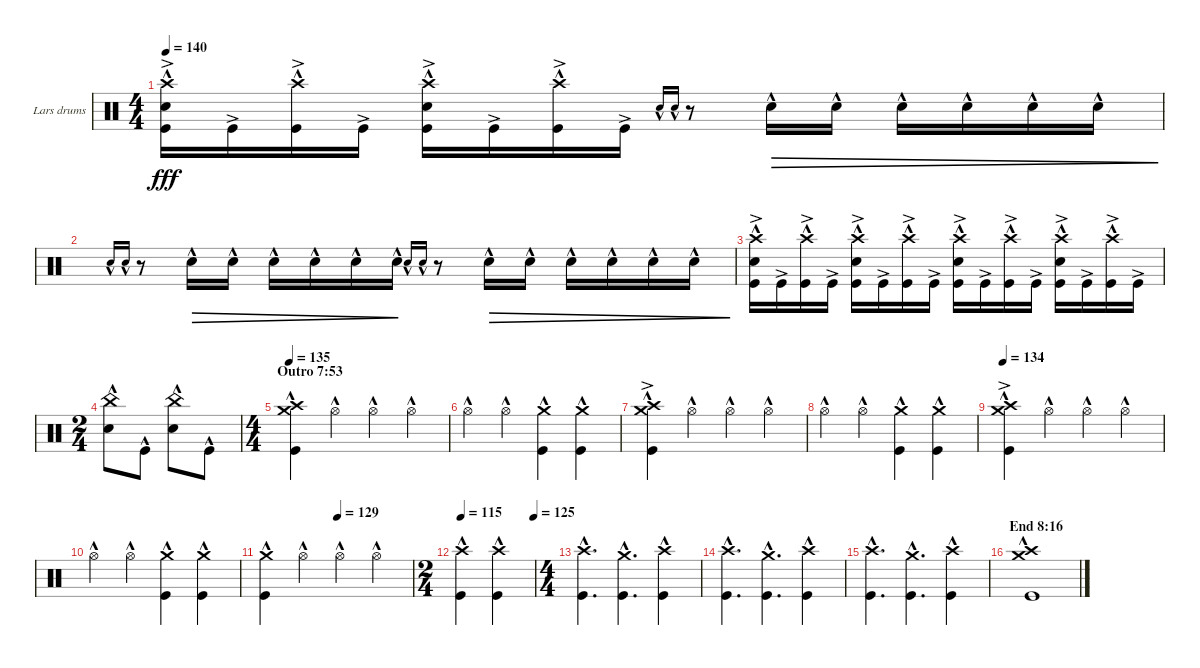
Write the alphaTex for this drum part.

\defaultSystemsLayout 4
\bracketExtendMode groupsimilarinstruments
\firstSystemTrackNameOrientation horizontal
\otherSystemsTrackNameOrientation horizontal
\track ("Lars drums" "Lars drums") {instrument percussion}
\staff {score}
\articulation defaults
\ts (4 4)
\tempo 140
\clef neutral
\ks c
("Crash high (hit)"{hac} "Snare (hit) 2"{hac} "Kick (hit)"{ac}).16{dy fff} "Kick (hit)"{ac}.16 ("Crash high (hit)"{hac} "Kick (hit)"{ac}).16 "Kick (hit)"{ac}.16 ("Crash high (hit)"{hac} "Snare (hit) 2"{hac} "Kick (hit)"{ac}).16 "Kick (hit)"{ac}.16 ("Crash high (hit)"{hac} "Kick (hit)"{ac}).16 "Kick (hit)"{ac}.16 "Snare (hit) 2"{hac}.16{gr onbeat} "Snare (hit) 2"{hac}.16{gr onbeat} r.8 "Snare (hit) 2"{hac}.16{dec} "Snare (hit) 2"{hac}.16{dec} "Snare (hit) 2"{hac}.16{dec} "Snare (hit) 2"{hac}.16{dec} "Snare (hit) 2"{hac}.16{dec} "Snare (hit) 2"{hac}.16{dec} |
"Snare (hit) 2"{hac}.16{gr onbeat} "Snare (hit) 2"{hac}.16{gr onbeat} r.8 "Snare (hit) 2"{hac}.16{dec} "Snare (hit) 2"{hac}.16{dec} "Snare (hit) 2"{hac}.16{dec} "Snare (hit) 2"{hac}.16{dec} "Snare (hit) 2"{hac}.16{dec} "Snare (hit) 2"{hac}.16{dec} "Snare (hit) 2"{hac}.16{gr onbeat} "Snare (hit) 2"{hac}.16{gr onbeat} r.8 "Snare (hit) 2"{hac}.16{dec} "Snare (hit) 2"{hac}.16{dec} "Snare (hit) 2"{hac}.16{dec} "Snare (hit) 2"{hac}.16{dec} "Snare (hit) 2"{hac}.16{dec} "Snare (hit) 2"{hac}.16{dec} |
("Crash high (hit)"{hac} "Snare (hit) 2"{hac} "Kick (hit)"{ac}).16 "Kick (hit)"{ac}.16 ("Crash high (hit)"{hac} "Kick (hit)"{ac}).16 "Kick (hit)"{ac}.16 ("Crash high (hit)"{hac} "Snare (hit) 2"{hac} "Kick (hit)"{ac}).16 "Kick (hit)"{ac}.16 ("Crash high (hit)"{hac} "Kick (hit)"{ac}).16 "Kick (hit)"{ac}.16 ("Crash high (hit)"{hac} "Snare (hit) 2"{hac} "Kick (hit)"{ac}).16 "Kick (hit)"{ac}.16 ("Crash high (hit)"{hac} "Kick (hit)"{ac}).16 "Kick (hit)"{ac}.16 ("Crash high (hit)"{hac} "Snare (hit) 2"{hac} "Kick (hit)"{ac}).16 "Kick (hit)"{ac}.16 ("Crash high (hit)"{hac} "Kick (hit)"{ac}).16 "Kick (hit)"{ac}.16 |
\ts (2 4)
("Snare (hit) 2"{hac} "China (hit)"{hac}).8 "Kick (hit)"{hac}.8 ("Snare (hit) 2"{hac} "China (hit)"{hac}).8 "Kick (hit)"{hac}.8 |
\ts (4 4)
\section ("" "Outro 7:53")
\tempo 135
("Crash high (hit)"{hac} "Crash medium (hit)"{hac} "Kick (hit)"{hac}).4 "Hi-Hat (open)"{hac}.4 "Hi-Hat (open)"{hac}.4 "Hi-Hat (open)"{hac}.4 |
"Hi-Hat (open)"{hac}.4 "Hi-Hat (open)"{hac}.4 ("Crash medium (hit)"{hac} "Kick (hit)"{hac}).4 ("Crash medium (hit)"{hac} "Kick (hit)"{hac}).4 |
("Crash high (hit)"{hac} "Crash medium (hit)"{ac} "Kick (hit)"{hac}).4 "Hi-Hat (open)"{hac}.4 "Hi-Hat (open)"{hac}.4 "Hi-Hat (open)"{hac}.4 |
"Hi-Hat (open)"{hac}.4 "Hi-Hat (open)"{hac}.4 ("Crash medium (hit)"{hac} "Kick (hit)"{hac}).4 ("Crash medium (hit)"{hac} "Kick (hit)"{hac}).4 |
\tempo 134
("Crash high (hit)"{hac} "Crash medium (hit)"{ac} "Kick (hit)"{hac}).4 "Hi-Hat (open)"{hac}.4 "Hi-Hat (open)"{hac}.4 "Hi-Hat (open)"{hac}.4 |
"Hi-Hat (open)"{hac}.4 "Hi-Hat (open)"{hac}.4 ("Crash medium (hit)"{hac} "Kick (hit)"{hac}).4 ("Crash medium (hit)"{hac} "Kick (hit)"{hac}).4 |
\tempo (129 0.49375)
("Crash medium (hit)"{hac} "Kick (hit)"{hac}).4 "Hi-Hat (open)"{hac}.4 "Hi-Hat (open)"{hac}.4 "Hi-Hat (open)"{hac}.4 |
\ts (2 4)
\tempo 115
\tempo (125 1)
("Crash high (hit)"{hac} "Kick (hit)"{hac}).4 ("Crash high (hit)"{hac} "Kick (hit)"{hac}).4 |
\ts (4 4)
("Crash high (hit)"{hac} "Kick (hit)"{hac}).4{d} ("Crash medium (hit)"{hac} "Kick (hit)"{hac}).4{d} ("Crash high (hit)"{hac} "Kick (hit)"{hac}).4 |
("Crash high (hit)"{hac} "Kick (hit)"{hac}).4{d} ("Crash medium (hit)"{hac} "Kick (hit)"{hac}).4{d} ("Crash high (hit)"{hac} "Kick (hit)"{hac}).4 |
("Crash high (hit)"{hac} "Kick (hit)"{hac}).4{d} ("Crash medium (hit)"{hac} "Kick (hit)"{hac}).4{d} ("Crash high (hit)"{hac} "Kick (hit)"{hac}).4 |
\section ("" "End 8:16")
("Crash high (hit)"{hac} "Kick (hit)"{hac} "Crash medium (hit)"{hac}).1
